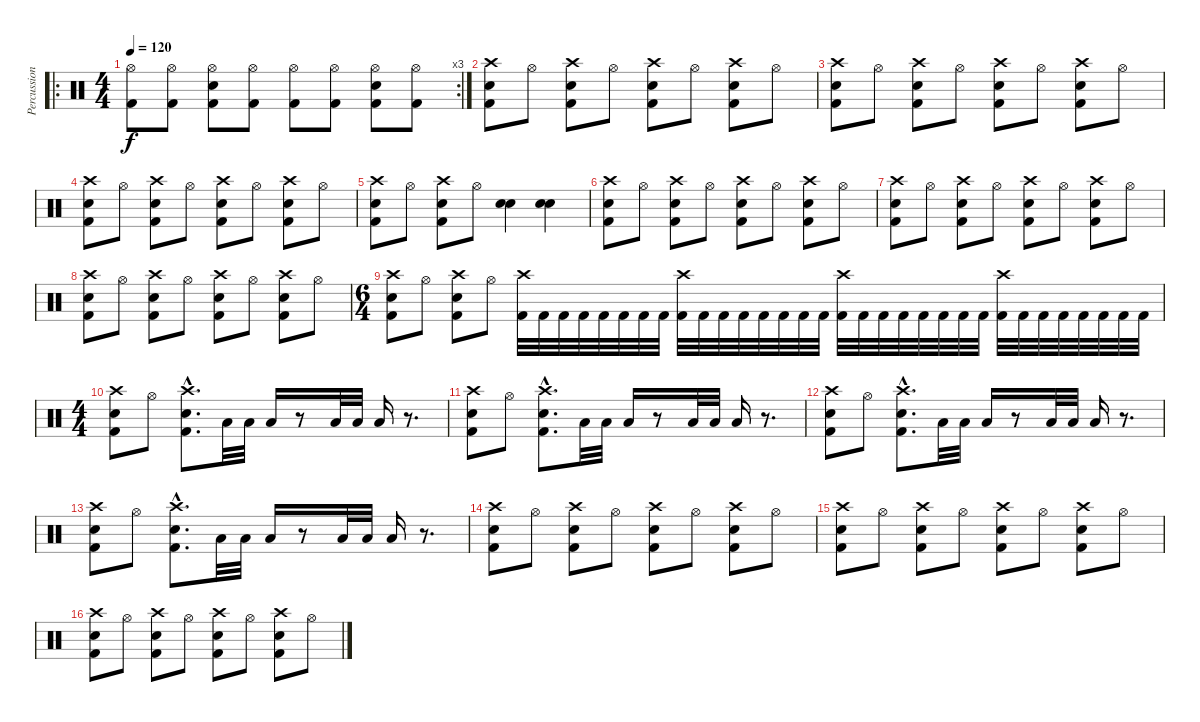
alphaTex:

\track ("Percussions" "Percussion") {instrument percussion}
\staff {score}
\articulation defaults
\ro
\rc 3
\ts (4 4)
\tempo 120
\clef neutral
\ks c
("Hi-Hat (open)" "Kick (hit) 2").8{dy f} ("Hi-Hat (open)" "Kick (hit) 2").8 ("Snare (hit) 2" "Hi-Hat (open)" "Kick (hit) 2").8 ("Hi-Hat (open)" "Kick (hit) 2").8 ("Hi-Hat (open)" "Kick (hit) 2").8 ("Hi-Hat (open)" "Kick (hit) 2").8 ("Snare (hit) 2" "Hi-Hat (open)" "Kick (hit) 2").8 ("Hi-Hat (open)" "Kick (hit) 2").8 |
("Snare (hit) 2" "Crash high (hit)" "Kick (hit) 2").8 "Hi-Hat (open)".8 ("Snare (hit) 2" "Crash high (hit)" "Kick (hit) 2").8 "Hi-Hat (open)".8 ("Snare (hit) 2" "Crash high (hit)" "Kick (hit) 2").8 "Hi-Hat (open)".8 ("Snare (hit) 2" "Crash high (hit)" "Kick (hit) 2").8 "Hi-Hat (open)".8 |
("Snare (hit) 2" "Crash high (hit)" "Kick (hit) 2").8 "Hi-Hat (open)".8 ("Snare (hit) 2" "Crash high (hit)" "Kick (hit) 2").8 "Hi-Hat (open)".8 ("Snare (hit) 2" "Crash high (hit)" "Kick (hit) 2").8 "Hi-Hat (open)".8 ("Snare (hit) 2" "Crash high (hit)" "Kick (hit) 2").8 "Hi-Hat (open)".8 |
("Snare (hit) 2" "Crash high (hit)" "Kick (hit) 2").8 "Hi-Hat (open)".8 ("Snare (hit) 2" "Crash high (hit)" "Kick (hit) 2").8 "Hi-Hat (open)".8 ("Snare (hit) 2" "Crash high (hit)" "Kick (hit) 2").8 "Hi-Hat (open)".8 ("Snare (hit) 2" "Crash high (hit)" "Kick (hit) 2").8 "Hi-Hat (open)".8 |
("Snare (hit) 2" "Crash high (hit)" "Kick (hit) 2").8 "Hi-Hat (open)".8 ("Snare (hit) 2" "Crash high (hit)" "Kick (hit) 2").8 "Hi-Hat (open)".8 ("Snare (hit) 2" "Snare (hit) 2").4 ("Snare (hit) 2" "Snare (hit) 2").4 |
("Snare (hit) 2" "Crash high (hit)" "Kick (hit) 2").8 "Hi-Hat (open)".8 ("Snare (hit) 2" "Crash high (hit)" "Kick (hit) 2").8 "Hi-Hat (open)".8 ("Snare (hit) 2" "Crash high (hit)" "Kick (hit) 2").8 "Hi-Hat (open)".8 ("Snare (hit) 2" "Crash high (hit)" "Kick (hit) 2").8 "Hi-Hat (open)".8 |
("Snare (hit) 2" "Crash high (hit)" "Kick (hit) 2").8 "Hi-Hat (open)".8 ("Snare (hit) 2" "Crash high (hit)" "Kick (hit) 2").8 "Hi-Hat (open)".8 ("Snare (hit) 2" "Crash high (hit)" "Kick (hit) 2").8 "Hi-Hat (open)".8 ("Snare (hit) 2" "Crash high (hit)" "Kick (hit) 2").8 "Hi-Hat (open)".8 |
("Snare (hit) 2" "Crash high (hit)" "Kick (hit) 2").8 "Hi-Hat (open)".8 ("Snare (hit) 2" "Crash high (hit)" "Kick (hit) 2").8 "Hi-Hat (open)".8 ("Snare (hit) 2" "Crash high (hit)" "Kick (hit) 2").8 "Hi-Hat (open)".8 ("Snare (hit) 2" "Crash high (hit)" "Kick (hit) 2").8 "Hi-Hat (open)".8 |
\ts (6 4)
("Snare (hit) 2" "Crash high (hit)" "Kick (hit) 2").8 "Hi-Hat (open)".8 ("Snare (hit) 2" "Crash high (hit)" "Kick (hit) 2").8 "Hi-Hat (open)".8 ("Crash high (hit)" "Kick (hit) 2").32 "Kick (hit) 2".32 "Kick (hit) 2".32 "Kick (hit) 2".32 "Kick (hit) 2".32 "Kick (hit) 2".32 "Kick (hit) 2".32 "Kick (hit) 2".32 ("Crash high (hit)" "Kick (hit) 2").32 "Kick (hit) 2".32 "Kick (hit) 2".32 "Kick (hit) 2".32 "Kick (hit) 2".32 "Kick (hit) 2".32 "Kick (hit) 2".32 "Kick (hit) 2".32 ("Crash high (hit)" "Kick (hit) 2").32 "Kick (hit) 2".32 "Kick (hit) 2".32 "Kick (hit) 2".32 "Kick (hit) 2".32 "Kick (hit) 2".32 "Kick (hit) 2".32 "Kick (hit) 2".32 ("Crash high (hit)" "Kick (hit) 2").32 "Kick (hit) 2".32 "Kick (hit) 2".32 "Kick (hit) 2".32 "Kick (hit) 2".32 "Kick (hit) 2".32 "Kick (hit) 2".32 "Kick (hit) 2".32 |
\ts (4 4)
("Snare (hit) 2" "Crash high (hit)" "Kick (hit) 2").8 "Hi-Hat (open)".8 ("Snare (hit) 2"{hac} "Crash high (hit)"{hac} "Kick (hit) 2"{hac}).8{d} "Low Floor Tom (hit)".32 "Low Floor Tom (hit)".32 "Low Floor Tom (hit)".16 r.8 "Low Floor Tom (hit)".32 "Low Floor Tom (hit)".32 "Low Floor Tom (hit)".16 r.8{d} |
("Snare (hit) 2" "Crash high (hit)" "Kick (hit) 2").8 "Hi-Hat (open)".8 ("Snare (hit) 2"{hac} "Crash high (hit)"{hac} "Kick (hit) 2"{hac}).8{d} "Low Floor Tom (hit)".32 "Low Floor Tom (hit)".32 "Low Floor Tom (hit)".16 r.8 "Low Floor Tom (hit)".32 "Low Floor Tom (hit)".32 "Low Floor Tom (hit)".16 r.8{d} |
("Snare (hit) 2" "Crash high (hit)" "Kick (hit) 2").8 "Hi-Hat (open)".8 ("Snare (hit) 2"{hac} "Crash high (hit)"{hac} "Kick (hit) 2"{hac}).8{d} "Low Floor Tom (hit)".32 "Low Floor Tom (hit)".32 "Low Floor Tom (hit)".16 r.8 "Low Floor Tom (hit)".32 "Low Floor Tom (hit)".32 "Low Floor Tom (hit)".16 r.8{d} |
("Snare (hit) 2" "Crash high (hit)" "Kick (hit) 2").8 "Hi-Hat (open)".8 ("Snare (hit) 2"{hac} "Crash high (hit)"{hac} "Kick (hit) 2"{hac}).8{d} "Low Floor Tom (hit)".32 "Low Floor Tom (hit)".32 "Low Floor Tom (hit)".16 r.8 "Low Floor Tom (hit)".32 "Low Floor Tom (hit)".32 "Low Floor Tom (hit)".16 r.8{d} |
("Snare (hit) 2" "Crash high (hit)" "Kick (hit) 2").8 "Hi-Hat (open)".8 ("Snare (hit) 2" "Crash high (hit)" "Kick (hit) 2").8 "Hi-Hat (open)".8 ("Snare (hit) 2" "Crash high (hit)" "Kick (hit) 2").8 "Hi-Hat (open)".8 ("Snare (hit) 2" "Crash high (hit)" "Kick (hit) 2").8 "Hi-Hat (open)".8 |
("Snare (hit) 2" "Crash high (hit)" "Kick (hit) 2").8 "Hi-Hat (open)".8 ("Snare (hit) 2" "Crash high (hit)" "Kick (hit) 2").8 "Hi-Hat (open)".8 ("Snare (hit) 2" "Crash high (hit)" "Kick (hit) 2").8 "Hi-Hat (open)".8 ("Snare (hit) 2" "Crash high (hit)" "Kick (hit) 2").8 "Hi-Hat (open)".8 |
("Snare (hit) 2" "Crash high (hit)" "Kick (hit) 2").8 "Hi-Hat (open)".8 ("Snare (hit) 2" "Crash high (hit)" "Kick (hit) 2").8 "Hi-Hat (open)".8 ("Snare (hit) 2" "Crash high (hit)" "Kick (hit) 2").8 "Hi-Hat (open)".8 ("Snare (hit) 2" "Crash high (hit)" "Kick (hit) 2").8 "Hi-Hat (open)".8
